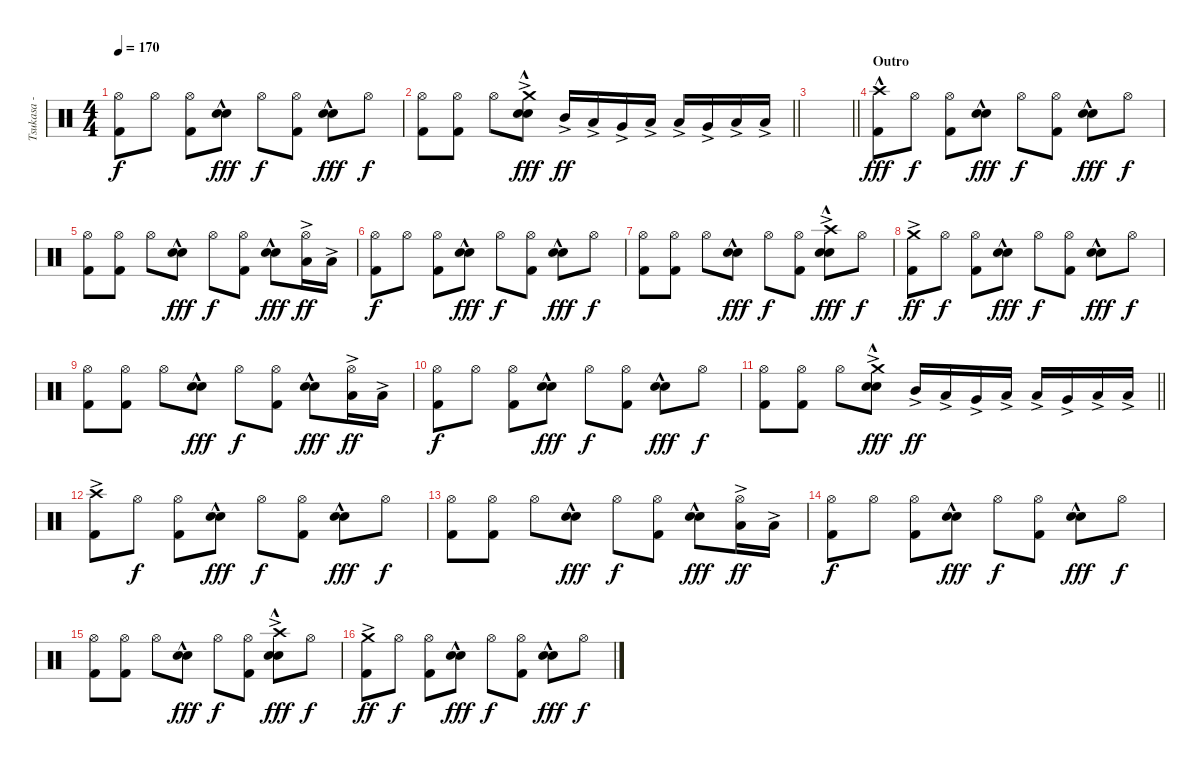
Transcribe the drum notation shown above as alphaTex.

\track ("Tsukasa - Drums" "Tsukasa - ") {instrument percussion}
\staff {score}
\articulation defaults
\ts (4 4)
\tempo 170
\clef neutral
\ks c
("Hi-Hat (open)" "Kick (hit) 2").8{dy f} "Hi-Hat (open)".8 ("Hi-Hat (open)" "Kick (hit) 2").8 ("Electric Snare (hit)"{hac} "Snare (hit) 2").8{dy fff} "Hi-Hat (open)".8{dy f} ("Hi-Hat (open)" "Kick (hit) 2").8 ("Electric Snare (hit)"{hac} "Snare (hit) 2").8{dy fff} "Hi-Hat (open)".8{dy f} |
\barLineRight lightlight
("Hi-Hat (open)" "Kick (hit) 2").8 ("Hi-Hat (open)" "Kick (hit) 2").8 "Hi-Hat (open)".8 ("Crash medium (hit)"{ac} "Electric Snare (hit)"{hac} "Snare (hit) 2").8{dy fff} "Mid Tom (hit)"{ac}.16{dy ff} "Low Tom (hit)"{ac}.16 "Very Low Tom (hit)"{ac}.16 "Low Floor Tom (hit)"{ac}.16 "Low Tom (hit)"{ac}.16 "Very Low Tom (hit)"{ac}.16 "Low Floor Tom (hit)"{ac}.16 "Low Floor Tom (hit)"{ac}.16 |
\barLineRight lightlight
|
\section ("" "Outro")
("Crash high (hit)"{hac} "Kick (hit) 2").8{dy fff} "Hi-Hat (open)".8{dy f} ("Hi-Hat (open)" "Kick (hit) 2").8 ("Electric Snare (hit)"{hac} "Snare (hit) 2").8{dy fff} "Hi-Hat (open)".8{dy f} ("Hi-Hat (open)" "Kick (hit) 2").8 ("Electric Snare (hit)"{hac} "Snare (hit) 2").8{dy fff} "Hi-Hat (open)".8{dy f} |
("Hi-Hat (open)" "Kick (hit) 2").8 ("Hi-Hat (open)" "Kick (hit) 2").8 "Hi-Hat (open)".8 ("Electric Snare (hit)"{hac} "Snare (hit) 2").8{dy fff} "Hi-Hat (open)".8{dy f} ("Hi-Hat (open)" "Kick (hit) 2").8 ("Electric Snare (hit)"{hac} "Snare (hit) 2").8{dy fff} ("Hi-Hat (open)" "Low Tom (hit)"{ac}).16{dy ff} "Low Tom (hit)"{ac}.16 |
("Hi-Hat (open)" "Kick (hit) 2").8{dy f} "Hi-Hat (open)".8 ("Hi-Hat (open)" "Kick (hit) 2").8 ("Electric Snare (hit)"{hac} "Snare (hit) 2").8{dy fff} "Hi-Hat (open)".8{dy f} ("Hi-Hat (open)" "Kick (hit) 2").8 ("Electric Snare (hit)"{hac} "Snare (hit) 2").8{dy fff} "Hi-Hat (open)".8{dy f} |
("Hi-Hat (open)" "Kick (hit) 2").8 ("Hi-Hat (open)" "Kick (hit) 2").8 "Hi-Hat (open)".8 ("Electric Snare (hit)"{hac} "Snare (hit) 2").8{dy fff} "Hi-Hat (open)".8{dy f} ("Hi-Hat (open)" "Kick (hit) 2").8 ("Crash high (hit)"{ac} "Electric Snare (hit)"{hac} "Snare (hit) 2").8{dy fff} "Hi-Hat (open)".8{dy f} |
("Crash medium (hit)"{ac} "Kick (hit) 2").8{dy ff} "Hi-Hat (open)".8{dy f} ("Hi-Hat (open)" "Kick (hit) 2").8 ("Electric Snare (hit)"{hac} "Snare (hit) 2").8{dy fff} "Hi-Hat (open)".8{dy f} ("Hi-Hat (open)" "Kick (hit) 2").8 ("Electric Snare (hit)"{hac} "Snare (hit) 2").8{dy fff} "Hi-Hat (open)".8{dy f} |
("Hi-Hat (open)" "Kick (hit) 2").8 ("Hi-Hat (open)" "Kick (hit) 2").8 "Hi-Hat (open)".8 ("Electric Snare (hit)"{hac} "Snare (hit) 2").8{dy fff} "Hi-Hat (open)".8{dy f} ("Hi-Hat (open)" "Kick (hit) 2").8 ("Electric Snare (hit)"{hac} "Snare (hit) 2").8{dy fff} ("Hi-Hat (open)" "Low Tom (hit)"{ac}).16{dy ff} "Low Tom (hit)"{ac}.16 |
("Hi-Hat (open)" "Kick (hit) 2").8{dy f} "Hi-Hat (open)".8 ("Hi-Hat (open)" "Kick (hit) 2").8 ("Electric Snare (hit)"{hac} "Snare (hit) 2").8{dy fff} "Hi-Hat (open)".8{dy f} ("Hi-Hat (open)" "Kick (hit) 2").8 ("Electric Snare (hit)"{hac} "Snare (hit) 2").8{dy fff} "Hi-Hat (open)".8{dy f} |
\barLineRight lightlight
("Hi-Hat (open)" "Kick (hit) 2").8 ("Hi-Hat (open)" "Kick (hit) 2").8 "Hi-Hat (open)".8 ("Crash medium (hit)"{ac} "Electric Snare (hit)"{hac} "Snare (hit) 2").8{dy fff} "Mid Tom (hit)"{ac}.16{dy ff} "Low Tom (hit)"{ac}.16 "Very Low Tom (hit)"{ac}.16 "Low Floor Tom (hit)"{ac}.16 "Low Tom (hit)"{ac}.16 "Very Low Tom (hit)"{ac}.16 "Low Floor Tom (hit)"{ac}.16 "Low Floor Tom (hit)"{ac}.16 |
\section ("" "")
("Crash high (hit)"{ac} "Kick (hit) 2").8 "Hi-Hat (open)".8{dy f} ("Hi-Hat (open)" "Kick (hit) 2").8 ("Electric Snare (hit)"{hac} "Snare (hit) 2").8{dy fff} "Hi-Hat (open)".8{dy f} ("Hi-Hat (open)" "Kick (hit) 2").8 ("Electric Snare (hit)"{hac} "Snare (hit) 2").8{dy fff} "Hi-Hat (open)".8{dy f} |
("Hi-Hat (open)" "Kick (hit) 2").8 ("Hi-Hat (open)" "Kick (hit) 2").8 "Hi-Hat (open)".8 ("Electric Snare (hit)"{hac} "Snare (hit) 2").8{dy fff} "Hi-Hat (open)".8{dy f} ("Hi-Hat (open)" "Kick (hit) 2").8 ("Electric Snare (hit)"{hac} "Snare (hit) 2").8{dy fff} ("Hi-Hat (open)" "Low Tom (hit)"{ac}).16{dy ff} "Low Tom (hit)"{ac}.16 |
("Hi-Hat (open)" "Kick (hit) 2").8{dy f} "Hi-Hat (open)".8 ("Hi-Hat (open)" "Kick (hit) 2").8 ("Electric Snare (hit)"{hac} "Snare (hit) 2").8{dy fff} "Hi-Hat (open)".8{dy f} ("Hi-Hat (open)" "Kick (hit) 2").8 ("Electric Snare (hit)"{hac} "Snare (hit) 2").8{dy fff} "Hi-Hat (open)".8{dy f} |
("Hi-Hat (open)" "Kick (hit) 2").8 ("Hi-Hat (open)" "Kick (hit) 2").8 "Hi-Hat (open)".8 ("Electric Snare (hit)"{hac} "Snare (hit) 2").8{dy fff} "Hi-Hat (open)".8{dy f} ("Hi-Hat (open)" "Kick (hit) 2").8 ("Crash high (hit)"{ac} "Electric Snare (hit)"{hac} "Snare (hit) 2").8{dy fff} "Hi-Hat (open)".8{dy f} |
("Crash medium (hit)"{ac} "Kick (hit) 2").8{dy ff} "Hi-Hat (open)".8{dy f} ("Hi-Hat (open)" "Kick (hit) 2").8 ("Electric Snare (hit)"{hac} "Snare (hit) 2").8{dy fff} "Hi-Hat (open)".8{dy f} ("Hi-Hat (open)" "Kick (hit) 2").8 ("Electric Snare (hit)"{hac} "Snare (hit) 2").8{dy fff} "Hi-Hat (open)".8{dy f}
